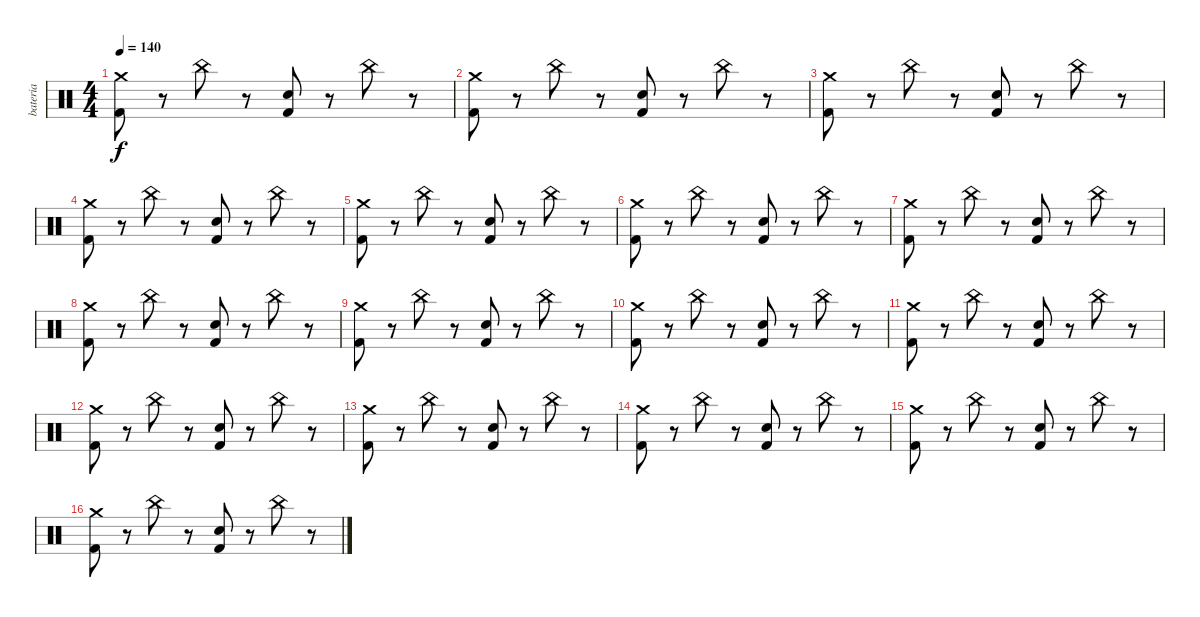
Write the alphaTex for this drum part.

\track ("bateria" "bateria") {instrument percussion}
\staff {score}
\articulation defaults
\ts (4 4)
\tempo 140
\clef neutral
\ks c
("Kick (hit) 2" "Crash medium (hit)").8{dy f} r.8 "China (hit)".8 r.8 ("Kick (hit) 2" "Electric Snare (hit)").8 r.8 "China (hit)".8 r.8 |
("Kick (hit) 2" "Crash medium (hit)").8 r.8 "China (hit)".8 r.8 ("Kick (hit) 2" "Electric Snare (hit)").8 r.8 "China (hit)".8 r.8 |
("Kick (hit) 2" "Crash medium (hit)").8 r.8 "China (hit)".8 r.8 ("Kick (hit) 2" "Electric Snare (hit)").8 r.8 "China (hit)".8 r.8 |
("Kick (hit) 2" "Crash medium (hit)").8 r.8 "China (hit)".8 r.8 ("Kick (hit) 2" "Electric Snare (hit)").8 r.8 "China (hit)".8 r.8 |
("Kick (hit) 2" "Crash medium (hit)").8 r.8 "China (hit)".8 r.8 ("Kick (hit) 2" "Electric Snare (hit)").8 r.8 "China (hit)".8 r.8 |
("Kick (hit) 2" "Crash medium (hit)").8 r.8 "China (hit)".8 r.8 ("Kick (hit) 2" "Electric Snare (hit)").8 r.8 "China (hit)".8 r.8 |
("Kick (hit) 2" "Crash medium (hit)").8 r.8 "China (hit)".8 r.8 ("Kick (hit) 2" "Electric Snare (hit)").8 r.8 "China (hit)".8 r.8 |
("Kick (hit) 2" "Crash medium (hit)").8 r.8 "China (hit)".8 r.8 ("Kick (hit) 2" "Electric Snare (hit)").8 r.8 "China (hit)".8 r.8 |
("Kick (hit) 2" "Crash medium (hit)").8 r.8 "China (hit)".8 r.8 ("Kick (hit) 2" "Electric Snare (hit)").8 r.8 "China (hit)".8 r.8 |
("Kick (hit) 2" "Crash medium (hit)").8 r.8 "China (hit)".8 r.8 ("Kick (hit) 2" "Electric Snare (hit)").8 r.8 "China (hit)".8 r.8 |
("Kick (hit) 2" "Crash medium (hit)").8 r.8 "China (hit)".8 r.8 ("Kick (hit) 2" "Electric Snare (hit)").8 r.8 "China (hit)".8 r.8 |
("Kick (hit) 2" "Crash medium (hit)").8 r.8 "China (hit)".8 r.8 ("Kick (hit) 2" "Electric Snare (hit)").8 r.8 "China (hit)".8 r.8 |
("Kick (hit) 2" "Crash medium (hit)").8 r.8 "China (hit)".8 r.8 ("Kick (hit) 2" "Electric Snare (hit)").8 r.8 "China (hit)".8 r.8 |
("Kick (hit) 2" "Crash medium (hit)").8 r.8 "China (hit)".8 r.8 ("Kick (hit) 2" "Electric Snare (hit)").8 r.8 "China (hit)".8 r.8 |
("Kick (hit) 2" "Crash medium (hit)").8 r.8 "China (hit)".8 r.8 ("Kick (hit) 2" "Electric Snare (hit)").8 r.8 "China (hit)".8 r.8 |
("Kick (hit) 2" "Crash medium (hit)").8 r.8 "China (hit)".8 r.8 ("Kick (hit) 2" "Electric Snare (hit)").8 r.8 "China (hit)".8 r.8
